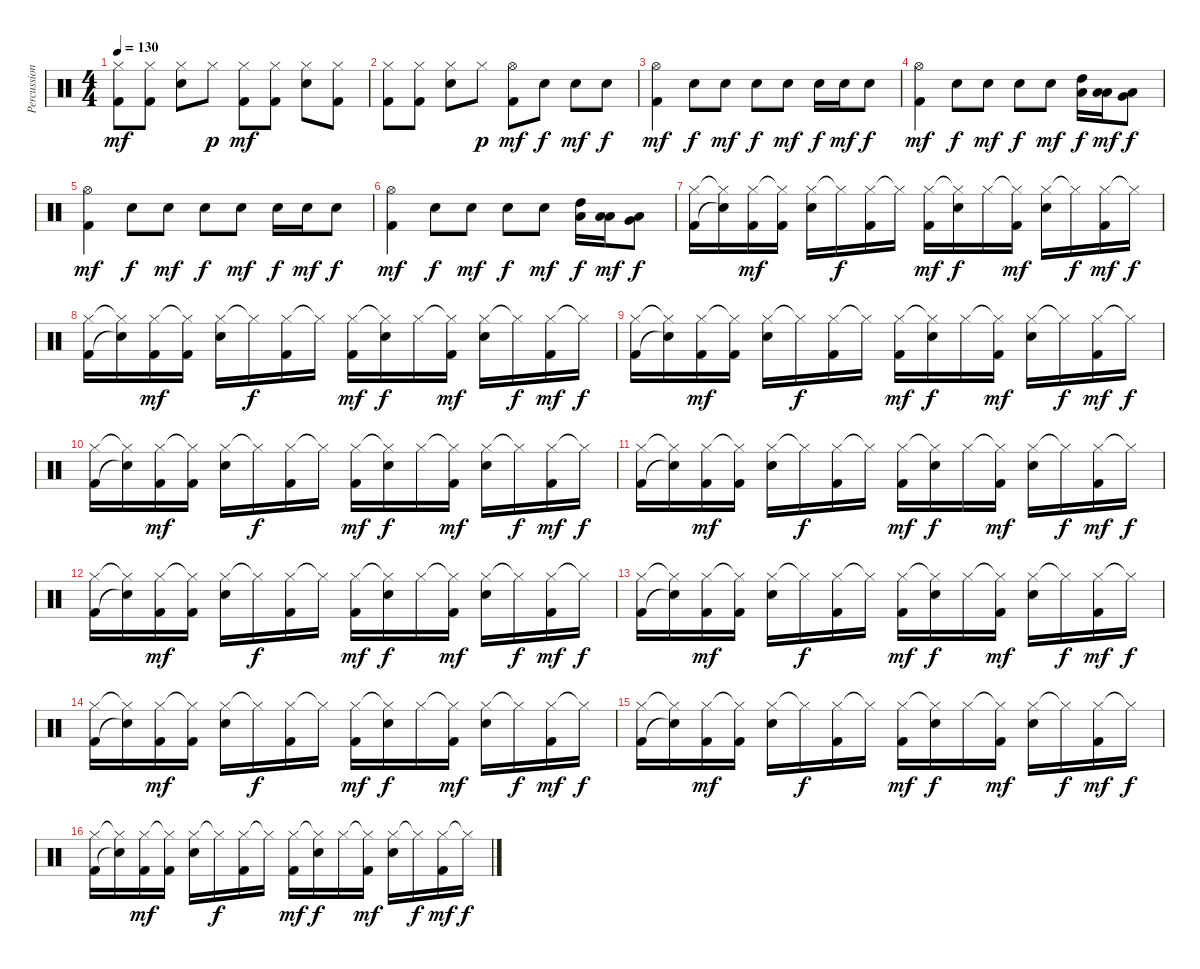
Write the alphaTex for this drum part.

\track ("Percussion" "Percussion") {instrument percussion}
\staff {score}
\articulation defaults
\ts (4 4)
\tempo 130
\clef neutral
\ks c
("Hi-Hat (closed)" "Kick (hit) 2").8{dy mf} ("Hi-Hat (closed)" "Kick (hit) 2").8 ("Hi-Hat (closed)" "Snare (hit) 2").8 "Hi-Hat (closed)".8{dy p} ("Hi-Hat (closed)" "Kick (hit) 2").8{dy mf} ("Hi-Hat (closed)" "Kick (hit) 2").8 ("Hi-Hat (closed)" "Snare (hit) 2").8 ("Hi-Hat (closed)" "Kick (hit) 2").8 |
("Hi-Hat (closed)" "Kick (hit) 2").8 ("Hi-Hat (closed)" "Kick (hit) 2").8 ("Hi-Hat (closed)" "Snare (hit) 2").8 "Hi-Hat (closed)".8{dy p} ("Hi-Hat (open)" "Kick (hit) 2").8{dy mf} "Snare (hit) 2".8{dy f} "Snare (hit) 2".8{dy mf} "Snare (hit) 2".8{dy f} |
("Hi-Hat (open)" "Kick (hit) 2").4{dy mf} "Snare (hit) 2".8{dy f} "Snare (hit) 2".8{dy mf} "Snare (hit) 2".8{dy f} "Snare (hit) 2".8{dy mf} "Snare (hit) 2".16{dy f} "Snare (hit) 2".16{dy mf} "Snare (hit) 2".8{dy f} |
("Hi-Hat (open)" "Kick (hit) 2").4{dy mf} "Snare (hit) 2".8{dy f} "Snare (hit) 2".8{dy mf} "Snare (hit) 2".8{dy f} "Snare (hit) 2".8{dy mf} ("High Tom (hit)" "Low Floor Tom (hit)").16{dy f} ("Low Tom (hit)" "Low Floor Tom (hit)").16{dy mf} ("Very Low Tom (hit)" "Low Floor Tom (hit)").8{dy f} |
("Hi-Hat (open)" "Kick (hit) 2").4{dy mf} "Snare (hit) 2".8{dy f} "Snare (hit) 2".8{dy mf} "Snare (hit) 2".8{dy f} "Snare (hit) 2".8{dy mf} "Snare (hit) 2".16{dy f} "Snare (hit) 2".16{dy mf} "Snare (hit) 2".8{dy f} |
("Hi-Hat (open)" "Kick (hit) 2").4{dy mf} "Snare (hit) 2".8{dy f} "Snare (hit) 2".8{dy mf} "Snare (hit) 2".8{dy f} "Snare (hit) 2".8{dy mf} ("High Tom (hit)" "Low Floor Tom (hit)").16{dy f} ("Low Tom (hit)" "Low Floor Tom (hit)").16{dy mf} ("Very Low Tom (hit)" "Low Floor Tom (hit)").8{dy f} |
("Hi-Hat (closed)" "Kick (hit) 2").16 ("Hi-Hat (closed)"{t} "Snare (hit)"{t}).16 ("Hi-Hat (closed)" "Kick (hit) 2").16{dy mf} ("Hi-Hat (closed)"{t} "Kick (hit) 2").16 ("Hi-Hat (closed)" "Snare (hit) 2").16 "Hi-Hat (closed)"{t}.16{dy f} ("Hi-Hat (closed)" "Kick (hit) 2").16 "Hi-Hat (closed)"{t}.16 ("Hi-Hat (closed)" "Kick (hit) 2").16{dy mf} ("Hi-Hat (closed)"{t} "Snare (hit) 2").16{dy f} "Hi-Hat (closed)".16 ("Hi-Hat (closed)"{t} "Kick (hit) 2").16{dy mf} ("Hi-Hat (closed)" "Snare (hit) 2").16 "Hi-Hat (closed)"{t}.16{dy f} ("Hi-Hat (closed)" "Kick (hit) 2").16{dy mf} "Hi-Hat (closed)"{t}.16{dy f} |
("Hi-Hat (closed)" "Kick (hit) 2").16 ("Hi-Hat (closed)"{t} "Snare (hit)"{t}).16 ("Hi-Hat (closed)" "Kick (hit) 2").16{dy mf} ("Hi-Hat (closed)"{t} "Kick (hit) 2").16 ("Hi-Hat (closed)" "Snare (hit) 2").16 "Hi-Hat (closed)"{t}.16{dy f} ("Hi-Hat (closed)" "Kick (hit) 2").16 "Hi-Hat (closed)"{t}.16 ("Hi-Hat (closed)" "Kick (hit) 2").16{dy mf} ("Hi-Hat (closed)"{t} "Snare (hit) 2").16{dy f} "Hi-Hat (closed)".16 ("Hi-Hat (closed)"{t} "Kick (hit) 2").16{dy mf} ("Hi-Hat (closed)" "Snare (hit) 2").16 "Hi-Hat (closed)"{t}.16{dy f} ("Hi-Hat (closed)" "Kick (hit) 2").16{dy mf} "Hi-Hat (closed)"{t}.16{dy f} |
("Hi-Hat (closed)" "Kick (hit) 2").16 ("Hi-Hat (closed)"{t} "Snare (hit)"{t}).16 ("Hi-Hat (closed)" "Kick (hit) 2").16{dy mf} ("Hi-Hat (closed)"{t} "Kick (hit) 2").16 ("Hi-Hat (closed)" "Snare (hit) 2").16 "Hi-Hat (closed)"{t}.16{dy f} ("Hi-Hat (closed)" "Kick (hit) 2").16 "Hi-Hat (closed)"{t}.16 ("Hi-Hat (closed)" "Kick (hit) 2").16{dy mf} ("Hi-Hat (closed)"{t} "Snare (hit) 2").16{dy f} "Hi-Hat (closed)".16 ("Hi-Hat (closed)"{t} "Kick (hit) 2").16{dy mf} ("Hi-Hat (closed)" "Snare (hit) 2").16 "Hi-Hat (closed)"{t}.16{dy f} ("Hi-Hat (closed)" "Kick (hit) 2").16{dy mf} "Hi-Hat (closed)"{t}.16{dy f} |
("Hi-Hat (closed)" "Kick (hit) 2").16 ("Hi-Hat (closed)"{t} "Snare (hit)"{t}).16 ("Hi-Hat (closed)" "Kick (hit) 2").16{dy mf} ("Hi-Hat (closed)"{t} "Kick (hit) 2").16 ("Hi-Hat (closed)" "Snare (hit) 2").16 "Hi-Hat (closed)"{t}.16{dy f} ("Hi-Hat (closed)" "Kick (hit) 2").16 "Hi-Hat (closed)"{t}.16 ("Hi-Hat (closed)" "Kick (hit) 2").16{dy mf} ("Hi-Hat (closed)"{t} "Snare (hit) 2").16{dy f} "Hi-Hat (closed)".16 ("Hi-Hat (closed)"{t} "Kick (hit) 2").16{dy mf} ("Hi-Hat (closed)" "Snare (hit) 2").16 "Hi-Hat (closed)"{t}.16{dy f} ("Hi-Hat (closed)" "Kick (hit) 2").16{dy mf} "Hi-Hat (closed)"{t}.16{dy f} |
("Hi-Hat (closed)" "Kick (hit) 2").16 ("Hi-Hat (closed)"{t} "Snare (hit)"{t}).16 ("Hi-Hat (closed)" "Kick (hit) 2").16{dy mf} ("Hi-Hat (closed)"{t} "Kick (hit) 2").16 ("Hi-Hat (closed)" "Snare (hit) 2").16 "Hi-Hat (closed)"{t}.16{dy f} ("Hi-Hat (closed)" "Kick (hit) 2").16 "Hi-Hat (closed)"{t}.16 ("Hi-Hat (closed)" "Kick (hit) 2").16{dy mf} ("Hi-Hat (closed)"{t} "Snare (hit) 2").16{dy f} "Hi-Hat (closed)".16 ("Hi-Hat (closed)"{t} "Kick (hit) 2").16{dy mf} ("Hi-Hat (closed)" "Snare (hit) 2").16 "Hi-Hat (closed)"{t}.16{dy f} ("Hi-Hat (closed)" "Kick (hit) 2").16{dy mf} "Hi-Hat (closed)"{t}.16{dy f} |
("Hi-Hat (closed)" "Kick (hit) 2").16 ("Hi-Hat (closed)"{t} "Snare (hit)"{t}).16 ("Hi-Hat (closed)" "Kick (hit) 2").16{dy mf} ("Hi-Hat (closed)"{t} "Kick (hit) 2").16 ("Hi-Hat (closed)" "Snare (hit) 2").16 "Hi-Hat (closed)"{t}.16{dy f} ("Hi-Hat (closed)" "Kick (hit) 2").16 "Hi-Hat (closed)"{t}.16 ("Hi-Hat (closed)" "Kick (hit) 2").16{dy mf} ("Hi-Hat (closed)"{t} "Snare (hit) 2").16{dy f} "Hi-Hat (closed)".16 ("Hi-Hat (closed)"{t} "Kick (hit) 2").16{dy mf} ("Hi-Hat (closed)" "Snare (hit) 2").16 "Hi-Hat (closed)"{t}.16{dy f} ("Hi-Hat (closed)" "Kick (hit) 2").16{dy mf} "Hi-Hat (closed)"{t}.16{dy f} |
("Hi-Hat (closed)" "Kick (hit) 2").16 ("Hi-Hat (closed)"{t} "Snare (hit)"{t}).16 ("Hi-Hat (closed)" "Kick (hit) 2").16{dy mf} ("Hi-Hat (closed)"{t} "Kick (hit) 2").16 ("Hi-Hat (closed)" "Snare (hit) 2").16 "Hi-Hat (closed)"{t}.16{dy f} ("Hi-Hat (closed)" "Kick (hit) 2").16 "Hi-Hat (closed)"{t}.16 ("Hi-Hat (closed)" "Kick (hit) 2").16{dy mf} ("Hi-Hat (closed)"{t} "Snare (hit) 2").16{dy f} "Hi-Hat (closed)".16 ("Hi-Hat (closed)"{t} "Kick (hit) 2").16{dy mf} ("Hi-Hat (closed)" "Snare (hit) 2").16 "Hi-Hat (closed)"{t}.16{dy f} ("Hi-Hat (closed)" "Kick (hit) 2").16{dy mf} "Hi-Hat (closed)"{t}.16{dy f} |
("Hi-Hat (closed)" "Kick (hit) 2").16 ("Hi-Hat (closed)"{t} "Snare (hit)"{t}).16 ("Hi-Hat (closed)" "Kick (hit) 2").16{dy mf} ("Hi-Hat (closed)"{t} "Kick (hit) 2").16 ("Hi-Hat (closed)" "Snare (hit) 2").16 "Hi-Hat (closed)"{t}.16{dy f} ("Hi-Hat (closed)" "Kick (hit) 2").16 "Hi-Hat (closed)"{t}.16 ("Hi-Hat (closed)" "Kick (hit) 2").16{dy mf} ("Hi-Hat (closed)"{t} "Snare (hit) 2").16{dy f} "Hi-Hat (closed)".16 ("Hi-Hat (closed)"{t} "Kick (hit) 2").16{dy mf} ("Hi-Hat (closed)" "Snare (hit) 2").16 "Hi-Hat (closed)"{t}.16{dy f} ("Hi-Hat (closed)" "Kick (hit) 2").16{dy mf} "Hi-Hat (closed)"{t}.16{dy f} |
("Hi-Hat (closed)" "Kick (hit) 2").16 ("Hi-Hat (closed)"{t} "Snare (hit)"{t}).16 ("Hi-Hat (closed)" "Kick (hit) 2").16{dy mf} ("Hi-Hat (closed)"{t} "Kick (hit) 2").16 ("Hi-Hat (closed)" "Snare (hit) 2").16 "Hi-Hat (closed)"{t}.16{dy f} ("Hi-Hat (closed)" "Kick (hit) 2").16 "Hi-Hat (closed)"{t}.16 ("Hi-Hat (closed)" "Kick (hit) 2").16{dy mf} ("Hi-Hat (closed)"{t} "Snare (hit) 2").16{dy f} "Hi-Hat (closed)".16 ("Hi-Hat (closed)"{t} "Kick (hit) 2").16{dy mf} ("Hi-Hat (closed)" "Snare (hit) 2").16 "Hi-Hat (closed)"{t}.16{dy f} ("Hi-Hat (closed)" "Kick (hit) 2").16{dy mf} "Hi-Hat (closed)"{t}.16{dy f} |
("Hi-Hat (closed)" "Kick (hit) 2").16 ("Hi-Hat (closed)"{t} "Snare (hit)"{t}).16 ("Hi-Hat (closed)" "Kick (hit) 2").16{dy mf} ("Hi-Hat (closed)"{t} "Kick (hit) 2").16 ("Hi-Hat (closed)" "Snare (hit) 2").16 "Hi-Hat (closed)"{t}.16{dy f} ("Hi-Hat (closed)" "Kick (hit) 2").16 "Hi-Hat (closed)"{t}.16 ("Hi-Hat (closed)" "Kick (hit) 2").16{dy mf} ("Hi-Hat (closed)"{t} "Snare (hit) 2").16{dy f} "Hi-Hat (closed)".16 ("Hi-Hat (closed)"{t} "Kick (hit) 2").16{dy mf} ("Hi-Hat (closed)" "Snare (hit) 2").16 "Hi-Hat (closed)"{t}.16{dy f} ("Hi-Hat (closed)" "Kick (hit) 2").16{dy mf} "Hi-Hat (closed)"{t}.16{dy f}
